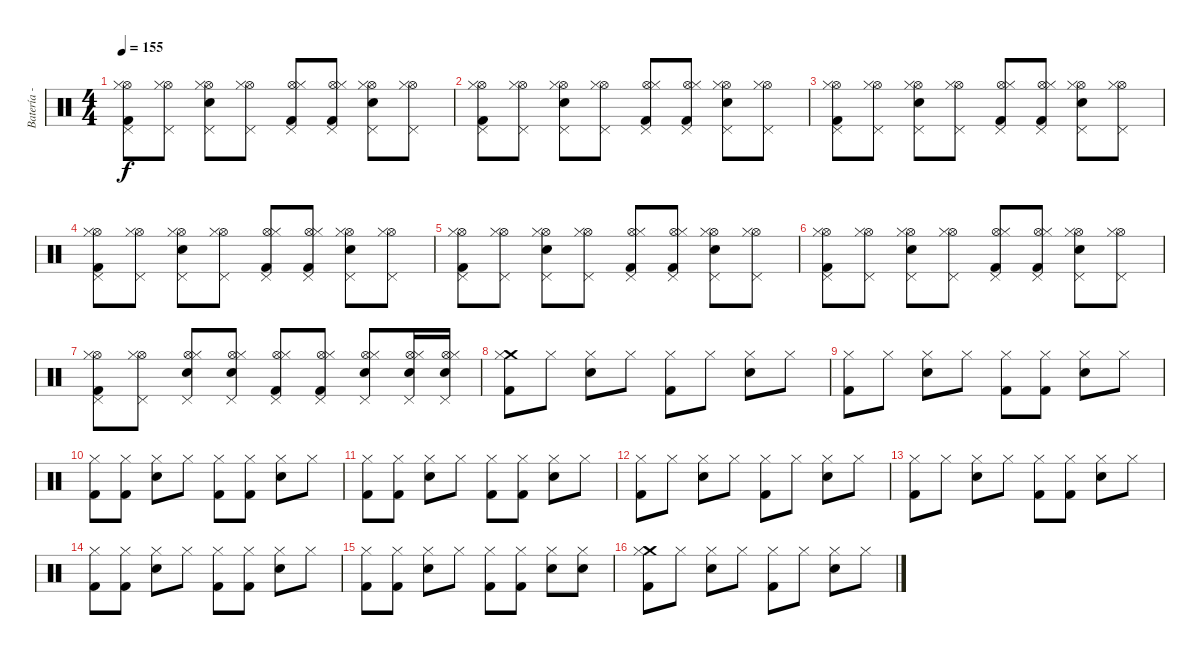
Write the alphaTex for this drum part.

\track ("Batería - Edu" "Batería - ") {instrument percussion}
\staff {score}
\articulation defaults
\ts (4 4)
\tempo 155
\clef neutral
\ks c
("Pedal Hi-Hat (hit)" "Hi-Hat (open)" "Hi-Hat (closed)" "Kick (hit) 2").8{dy f} ("Pedal Hi-Hat (hit)" "Hi-Hat (open)" "Hi-Hat (closed)").8 ("Pedal Hi-Hat (hit)" "Hi-Hat (open)" "Hi-Hat (closed)" "Electric Snare (hit)").8 ("Pedal Hi-Hat (hit)" "Hi-Hat (open)" "Hi-Hat (closed)").8 ("Pedal Hi-Hat (hit)" "Hi-Hat (open)" "Hi-Hat (closed)" "Kick (hit) 2").8 ("Pedal Hi-Hat (hit)" "Hi-Hat (open)" "Hi-Hat (closed)" "Kick (hit) 2").8 ("Pedal Hi-Hat (hit)" "Hi-Hat (open)" "Hi-Hat (closed)" "Electric Snare (hit)").8 ("Pedal Hi-Hat (hit)" "Hi-Hat (open)" "Hi-Hat (closed)").8 |
("Pedal Hi-Hat (hit)" "Hi-Hat (open)" "Hi-Hat (closed)" "Kick (hit) 2").8 ("Pedal Hi-Hat (hit)" "Hi-Hat (open)" "Hi-Hat (closed)").8 ("Pedal Hi-Hat (hit)" "Hi-Hat (open)" "Hi-Hat (closed)" "Electric Snare (hit)").8 ("Pedal Hi-Hat (hit)" "Hi-Hat (open)" "Hi-Hat (closed)").8 ("Pedal Hi-Hat (hit)" "Hi-Hat (open)" "Hi-Hat (closed)" "Kick (hit) 2").8 ("Pedal Hi-Hat (hit)" "Hi-Hat (open)" "Hi-Hat (closed)" "Kick (hit) 2").8 ("Pedal Hi-Hat (hit)" "Hi-Hat (open)" "Hi-Hat (closed)" "Electric Snare (hit)").8 ("Pedal Hi-Hat (hit)" "Hi-Hat (open)" "Hi-Hat (closed)").8 |
("Pedal Hi-Hat (hit)" "Hi-Hat (open)" "Hi-Hat (closed)" "Kick (hit) 2").8 ("Pedal Hi-Hat (hit)" "Hi-Hat (open)" "Hi-Hat (closed)").8 ("Pedal Hi-Hat (hit)" "Hi-Hat (open)" "Hi-Hat (closed)" "Electric Snare (hit)").8 ("Pedal Hi-Hat (hit)" "Hi-Hat (open)" "Hi-Hat (closed)").8 ("Pedal Hi-Hat (hit)" "Hi-Hat (open)" "Hi-Hat (closed)" "Kick (hit) 2").8 ("Pedal Hi-Hat (hit)" "Hi-Hat (open)" "Hi-Hat (closed)" "Kick (hit) 2").8 ("Pedal Hi-Hat (hit)" "Hi-Hat (open)" "Hi-Hat (closed)" "Electric Snare (hit)").8 ("Pedal Hi-Hat (hit)" "Hi-Hat (open)" "Hi-Hat (closed)").8 |
("Pedal Hi-Hat (hit)" "Hi-Hat (open)" "Hi-Hat (closed)" "Kick (hit) 2").8 ("Pedal Hi-Hat (hit)" "Hi-Hat (open)" "Hi-Hat (closed)").8 ("Pedal Hi-Hat (hit)" "Hi-Hat (open)" "Hi-Hat (closed)" "Electric Snare (hit)").8 ("Pedal Hi-Hat (hit)" "Hi-Hat (open)" "Hi-Hat (closed)").8 ("Pedal Hi-Hat (hit)" "Hi-Hat (open)" "Hi-Hat (closed)" "Kick (hit) 2").8 ("Pedal Hi-Hat (hit)" "Hi-Hat (open)" "Hi-Hat (closed)" "Kick (hit) 2").8 ("Pedal Hi-Hat (hit)" "Hi-Hat (open)" "Hi-Hat (closed)" "Electric Snare (hit)").8 ("Pedal Hi-Hat (hit)" "Hi-Hat (open)" "Hi-Hat (closed)").8 |
("Pedal Hi-Hat (hit)" "Hi-Hat (open)" "Hi-Hat (closed)" "Kick (hit) 2").8 ("Pedal Hi-Hat (hit)" "Hi-Hat (open)" "Hi-Hat (closed)").8 ("Pedal Hi-Hat (hit)" "Hi-Hat (open)" "Hi-Hat (closed)" "Electric Snare (hit)").8 ("Pedal Hi-Hat (hit)" "Hi-Hat (open)" "Hi-Hat (closed)").8 ("Pedal Hi-Hat (hit)" "Hi-Hat (open)" "Hi-Hat (closed)" "Kick (hit) 2").8 ("Pedal Hi-Hat (hit)" "Hi-Hat (open)" "Hi-Hat (closed)" "Kick (hit) 2").8 ("Pedal Hi-Hat (hit)" "Hi-Hat (open)" "Hi-Hat (closed)" "Electric Snare (hit)").8 ("Pedal Hi-Hat (hit)" "Hi-Hat (open)" "Hi-Hat (closed)").8 |
("Pedal Hi-Hat (hit)" "Hi-Hat (open)" "Hi-Hat (closed)" "Kick (hit) 2").8 ("Pedal Hi-Hat (hit)" "Hi-Hat (open)" "Hi-Hat (closed)").8 ("Pedal Hi-Hat (hit)" "Hi-Hat (open)" "Hi-Hat (closed)" "Electric Snare (hit)").8 ("Pedal Hi-Hat (hit)" "Hi-Hat (open)" "Hi-Hat (closed)").8 ("Pedal Hi-Hat (hit)" "Hi-Hat (open)" "Hi-Hat (closed)" "Kick (hit) 2").8 ("Pedal Hi-Hat (hit)" "Hi-Hat (open)" "Hi-Hat (closed)" "Kick (hit) 2").8 ("Pedal Hi-Hat (hit)" "Hi-Hat (open)" "Hi-Hat (closed)" "Electric Snare (hit)").8 ("Pedal Hi-Hat (hit)" "Hi-Hat (open)" "Hi-Hat (closed)").8 |
("Hi-Hat (open)" "Pedal Hi-Hat (hit)" "Hi-Hat (closed)" "Kick (hit) 2").8 ("Hi-Hat (open)" "Pedal Hi-Hat (hit)" "Hi-Hat (closed)").8 ("Hi-Hat (open)" "Pedal Hi-Hat (hit)" "Hi-Hat (closed)" "Electric Snare (hit)").8 ("Hi-Hat (open)" "Pedal Hi-Hat (hit)" "Hi-Hat (closed)" "Electric Snare (hit)").8 ("Hi-Hat (open)" "Pedal Hi-Hat (hit)" "Hi-Hat (closed)" "Kick (hit) 2").8 ("Hi-Hat (open)" "Pedal Hi-Hat (hit)" "Hi-Hat (closed)" "Kick (hit) 2").8 ("Hi-Hat (open)" "Pedal Hi-Hat (hit)" "Hi-Hat (closed)" "Electric Snare (hit)").8 ("Hi-Hat (open)" "Pedal Hi-Hat (hit)" "Hi-Hat (closed)" "Snare (hit) 2").16 ("Hi-Hat (open)" "Pedal Hi-Hat (hit)" "Hi-Hat (closed)" "Electric Snare (hit)").16 |
("Crash medium (hit)" "Kick (hit) 2" "Hi-Hat (closed)").8 "Hi-Hat (closed)".8 ("Electric Snare (hit)" "Hi-Hat (closed)").8 "Hi-Hat (closed)".8 ("Kick (hit) 2" "Hi-Hat (closed)").8 "Hi-Hat (closed)".8 ("Electric Snare (hit)" "Hi-Hat (closed)").8 "Hi-Hat (closed)".8 |
("Kick (hit) 2" "Hi-Hat (closed)").8 "Hi-Hat (closed)".8 ("Electric Snare (hit)" "Hi-Hat (closed)").8 "Hi-Hat (closed)".8 ("Kick (hit) 2" "Hi-Hat (closed)").8 ("Kick (hit) 2" "Hi-Hat (closed)").8 ("Electric Snare (hit)" "Hi-Hat (closed)").8 "Hi-Hat (closed)".8 |
("Kick (hit) 2" "Hi-Hat (closed)").8 ("Kick (hit) 2" "Hi-Hat (closed)").8 ("Electric Snare (hit)" "Hi-Hat (closed)").8 "Hi-Hat (closed)".8 ("Kick (hit) 2" "Hi-Hat (closed)").8 ("Kick (hit) 2" "Hi-Hat (closed)").8 ("Electric Snare (hit)" "Hi-Hat (closed)").8 "Hi-Hat (closed)".8 |
("Kick (hit) 2" "Hi-Hat (closed)").8 ("Kick (hit) 2" "Hi-Hat (closed)").8 ("Electric Snare (hit)" "Hi-Hat (closed)").8 "Hi-Hat (closed)".8 ("Kick (hit) 2" "Hi-Hat (closed)").8 ("Kick (hit) 2" "Hi-Hat (closed)").8 ("Electric Snare (hit)" "Hi-Hat (closed)").8 "Hi-Hat (closed)".8 |
("Kick (hit) 2" "Hi-Hat (closed)").8 "Hi-Hat (closed)".8 ("Electric Snare (hit)" "Hi-Hat (closed)").8 "Hi-Hat (closed)".8 ("Kick (hit) 2" "Hi-Hat (closed)").8 "Hi-Hat (closed)".8 ("Electric Snare (hit)" "Hi-Hat (closed)").8 "Hi-Hat (closed)".8 |
("Kick (hit) 2" "Hi-Hat (closed)").8 "Hi-Hat (closed)".8 ("Electric Snare (hit)" "Hi-Hat (closed)").8 "Hi-Hat (closed)".8 ("Kick (hit) 2" "Hi-Hat (closed)").8 ("Kick (hit) 2" "Hi-Hat (closed)").8 ("Electric Snare (hit)" "Hi-Hat (closed)").8 "Hi-Hat (closed)".8 |
("Kick (hit) 2" "Hi-Hat (closed)").8 ("Kick (hit) 2" "Hi-Hat (closed)").8 ("Electric Snare (hit)" "Hi-Hat (closed)").8 "Hi-Hat (closed)".8 ("Kick (hit) 2" "Hi-Hat (closed)").8 ("Kick (hit) 2" "Hi-Hat (closed)").8 ("Electric Snare (hit)" "Hi-Hat (closed)").8 "Hi-Hat (closed)".8 |
("Kick (hit) 2" "Hi-Hat (closed)").8 ("Kick (hit) 2" "Hi-Hat (closed)").8 ("Electric Snare (hit)" "Hi-Hat (closed)").8 "Hi-Hat (closed)".8 ("Kick (hit) 2" "Hi-Hat (closed)").8 ("Kick (hit) 2" "Hi-Hat (closed)").8 ("Electric Snare (hit)" "Hi-Hat (closed)").8 ("Electric Snare (hit)" "Hi-Hat (closed)").8 |
("Crash medium (hit)" "Kick (hit) 2" "Hi-Hat (closed)").8 "Hi-Hat (closed)".8 ("Electric Snare (hit)" "Hi-Hat (closed)").8 "Hi-Hat (closed)".8 ("Kick (hit) 2" "Hi-Hat (closed)").8 "Hi-Hat (closed)".8 ("Electric Snare (hit)" "Hi-Hat (closed)").8 "Hi-Hat (closed)".8
